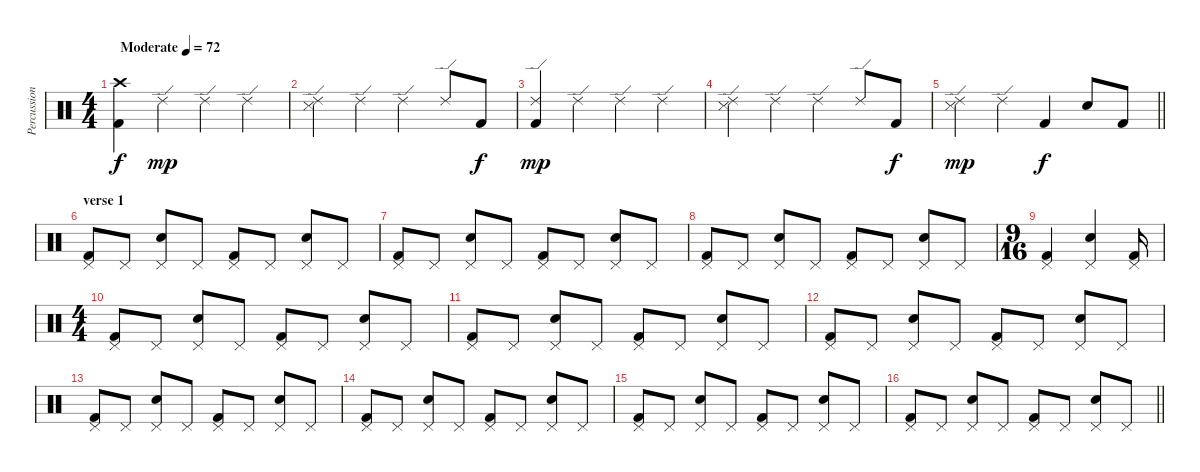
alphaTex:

\track ("Percussion" "Percussion") {instrument percussion}
\staff {score}
\articulation defaults
\ts (4 4)
\tempo (72 "Moderate")
\clef neutral
\ks c
("Crash high (hit)" "Kick (hit) 2").4{dy f} "Ride (edge) 2".4{dy mp} "Ride (edge) 2".4 "Ride (edge) 2".4 |
("Ride (edge) 2" "Snare (side stick) 3").4 "Ride (edge) 2".4 "Ride (edge) 2".4 "Ride (edge) 2".8 "Kick (hit) 2".8{dy f} |
("Ride (edge) 2" "Kick (hit) 2").4{dy mp} "Ride (edge) 2".4 "Ride (edge) 2".4 "Ride (edge) 2".4 |
("Ride (edge) 2" "Snare (side stick) 3").4 "Ride (edge) 2".4 "Ride (edge) 2".4 "Ride (edge) 2".8 "Kick (hit) 2".8{dy f} |
\barLineRight lightlight
("Ride (edge) 2" "Snare (side stick) 3").4{dy mp} "Ride (edge) 2".4 "Kick (hit) 2".4{dy f} "Snare (hit) 2".8 "Kick (hit) 2".8 |
\section ("" "verse 1")
("Pedal Hi-Hat (hit)" "Kick (hit) 2").8 "Pedal Hi-Hat (hit)".8 ("Pedal Hi-Hat (hit)" "Snare (hit) 2").8 "Pedal Hi-Hat (hit)".8 ("Pedal Hi-Hat (hit)" "Kick (hit) 2").8 "Pedal Hi-Hat (hit)".8 ("Pedal Hi-Hat (hit)" "Snare (hit) 2").8 "Pedal Hi-Hat (hit)".8 |
("Pedal Hi-Hat (hit)" "Kick (hit) 2").8 "Pedal Hi-Hat (hit)".8 ("Pedal Hi-Hat (hit)" "Snare (hit) 2").8 "Pedal Hi-Hat (hit)".8 ("Pedal Hi-Hat (hit)" "Kick (hit) 2").8 "Pedal Hi-Hat (hit)".8 ("Pedal Hi-Hat (hit)" "Snare (hit) 2").8 "Pedal Hi-Hat (hit)".8 |
("Pedal Hi-Hat (hit)" "Kick (hit) 2").8 "Pedal Hi-Hat (hit)".8 ("Pedal Hi-Hat (hit)" "Snare (hit) 2").8 "Pedal Hi-Hat (hit)".8 ("Pedal Hi-Hat (hit)" "Kick (hit) 2").8 "Pedal Hi-Hat (hit)".8 ("Pedal Hi-Hat (hit)" "Snare (hit) 2").8 "Pedal Hi-Hat (hit)".8 |
\ts (9 16)
("Pedal Hi-Hat (hit)" "Kick (hit) 2").4 ("Pedal Hi-Hat (hit)" "Snare (hit) 2").4 ("Pedal Hi-Hat (hit)" "Kick (hit) 2").16 |
\ts (4 4)
("Pedal Hi-Hat (hit)" "Kick (hit) 2").8 "Pedal Hi-Hat (hit)".8 ("Pedal Hi-Hat (hit)" "Snare (hit) 2").8 "Pedal Hi-Hat (hit)".8 ("Pedal Hi-Hat (hit)" "Kick (hit) 2").8 "Pedal Hi-Hat (hit)".8 ("Pedal Hi-Hat (hit)" "Snare (hit) 2").8 "Pedal Hi-Hat (hit)".8 |
("Pedal Hi-Hat (hit)" "Kick (hit) 2").8 "Pedal Hi-Hat (hit)".8 ("Pedal Hi-Hat (hit)" "Snare (hit) 2").8 "Pedal Hi-Hat (hit)".8 ("Pedal Hi-Hat (hit)" "Kick (hit) 2").8 "Pedal Hi-Hat (hit)".8 ("Pedal Hi-Hat (hit)" "Snare (hit) 2").8 "Pedal Hi-Hat (hit)".8 |
("Pedal Hi-Hat (hit)" "Kick (hit) 2").8 "Pedal Hi-Hat (hit)".8 ("Pedal Hi-Hat (hit)" "Snare (hit) 2").8 "Pedal Hi-Hat (hit)".8 ("Pedal Hi-Hat (hit)" "Kick (hit) 2").8 "Pedal Hi-Hat (hit)".8 ("Pedal Hi-Hat (hit)" "Snare (hit) 2").8 "Pedal Hi-Hat (hit)".8 |
("Pedal Hi-Hat (hit)" "Kick (hit) 2").8 "Pedal Hi-Hat (hit)".8 ("Pedal Hi-Hat (hit)" "Snare (hit) 2").8 "Pedal Hi-Hat (hit)".8 ("Pedal Hi-Hat (hit)" "Kick (hit) 2").8 "Pedal Hi-Hat (hit)".8 ("Pedal Hi-Hat (hit)" "Snare (hit) 2").8 "Pedal Hi-Hat (hit)".8 |
("Pedal Hi-Hat (hit)" "Kick (hit) 2").8 "Pedal Hi-Hat (hit)".8 ("Pedal Hi-Hat (hit)" "Snare (hit) 2").8 "Pedal Hi-Hat (hit)".8 ("Pedal Hi-Hat (hit)" "Kick (hit) 2").8 "Pedal Hi-Hat (hit)".8 ("Pedal Hi-Hat (hit)" "Snare (hit) 2").8 "Pedal Hi-Hat (hit)".8 |
("Pedal Hi-Hat (hit)" "Kick (hit) 2").8 "Pedal Hi-Hat (hit)".8 ("Pedal Hi-Hat (hit)" "Snare (hit) 2").8 "Pedal Hi-Hat (hit)".8 ("Pedal Hi-Hat (hit)" "Kick (hit) 2").8 "Pedal Hi-Hat (hit)".8 ("Pedal Hi-Hat (hit)" "Snare (hit) 2").8 "Pedal Hi-Hat (hit)".8 |
\barLineRight lightlight
("Pedal Hi-Hat (hit)" "Kick (hit) 2").8 "Pedal Hi-Hat (hit)".8 ("Pedal Hi-Hat (hit)" "Snare (hit) 2").8 "Pedal Hi-Hat (hit)".8 ("Pedal Hi-Hat (hit)" "Kick (hit) 2").8 "Pedal Hi-Hat (hit)".8 ("Pedal Hi-Hat (hit)" "Snare (hit) 2").8 "Pedal Hi-Hat (hit)".8
